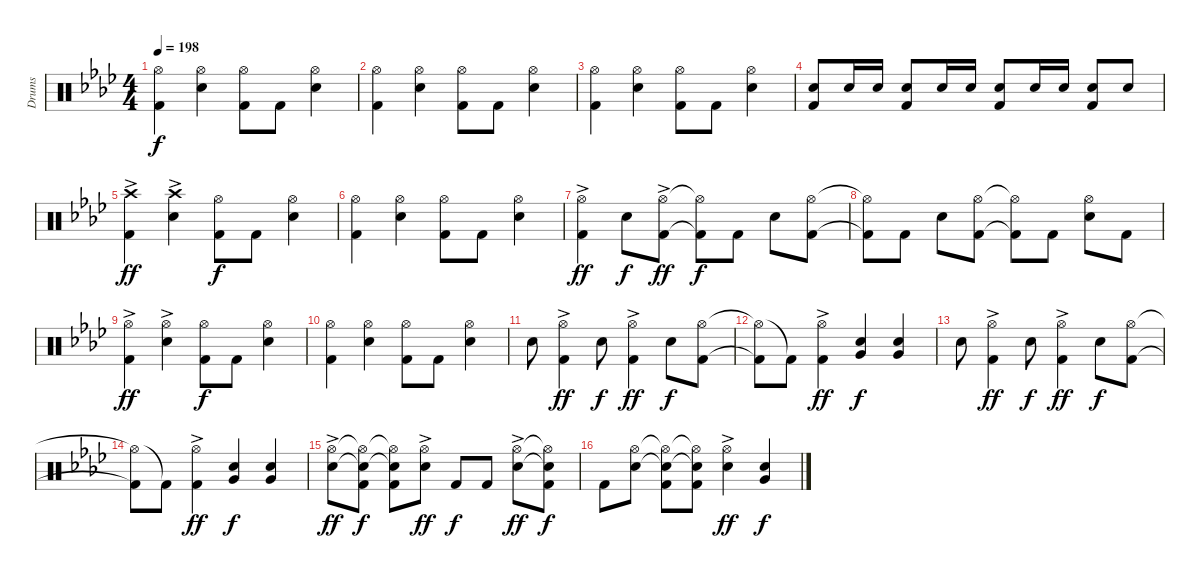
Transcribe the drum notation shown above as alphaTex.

\track ("Drums" "Drums") {instrument percussion}
\staff {score}
\articulation defaults
\ts (4 4)
\tempo 198
\clef neutral
\ks ab
("Hi-Hat (open)" "Kick (hit) 2").4{dy f} ("Hi-Hat (open)" "Snare (hit) 2").4 ("Hi-Hat (open)" "Kick (hit) 2").8 "Kick (hit) 2".8 ("Hi-Hat (open)" "Snare (hit) 2").4 |
("Hi-Hat (open)" "Kick (hit) 2").4 ("Hi-Hat (open)" "Snare (hit) 2").4 ("Hi-Hat (open)" "Kick (hit) 2").8 "Kick (hit) 2".8 ("Hi-Hat (open)" "Snare (hit) 2").4 |
("Hi-Hat (open)" "Kick (hit) 2").4 ("Hi-Hat (open)" "Snare (hit) 2").4 ("Hi-Hat (open)" "Kick (hit) 2").8 "Kick (hit) 2".8 ("Hi-Hat (open)" "Snare (hit) 2").4 |
("Snare (hit) 2" "Kick (hit) 2").8 "Snare (hit) 2".16 "Snare (hit) 2".16 ("Snare (hit) 2" "Kick (hit) 2").8 "Snare (hit) 2".16 "Snare (hit) 2".16 ("Snare (hit) 2" "Kick (hit) 2").8 "Snare (hit) 2".16 "Snare (hit) 2".16 ("Snare (hit) 2" "Kick (hit) 2").8 "Snare (hit) 2".8 |
("Crash high (hit)"{ac} "Kick (hit) 2"{ac}).4{dy ff} ("Crash high (hit)"{ac} "Snare (hit) 2"{ac}).4 ("Hi-Hat (open)" "Kick (hit) 2").8{dy f} "Kick (hit) 2".8 ("Hi-Hat (open)" "Snare (hit) 2").4 |
("Hi-Hat (open)" "Kick (hit) 2").4 ("Hi-Hat (open)" "Snare (hit) 2").4 ("Hi-Hat (open)" "Kick (hit) 2").8 "Kick (hit) 2".8 ("Hi-Hat (open)" "Snare (hit) 2").4 |
("Hi-Hat (open)" "Kick (hit) 2"{ac}).4{dy ff} "Snare (hit) 2".8{dy f} ("Hi-Hat (open)" "Kick (hit) 2"{ac}).8{dy ff} ("Hi-Hat (open)"{t} "Kick (hit) 2"{t}).8{dy f} "Kick (hit) 2".8 "Snare (hit) 2".8 ("Hi-Hat (open)" "Kick (hit) 2").8 |
("Hi-Hat (open)"{t} "Kick (hit) 2"{t}).8 "Kick (hit) 2".8 "Snare (hit) 2".8 ("Hi-Hat (open)" "Kick (hit) 2").8 ("Hi-Hat (open)"{t} "Kick (hit) 2"{t}).8 "Kick (hit) 2".8 ("Hi-Hat (open)" "Snare (hit) 2").8 "Kick (hit) 2".8 |
("Hi-Hat (open)"{ac} "Kick (hit) 2"{ac}).4{dy ff} ("Hi-Hat (open)" "Snare (hit) 2"{ac}).4 ("Hi-Hat (open)" "Kick (hit) 2").8{dy f} "Kick (hit) 2".8 ("Hi-Hat (open)" "Snare (hit) 2").4 |
("Hi-Hat (open)" "Kick (hit) 2").4 ("Hi-Hat (open)" "Snare (hit) 2").4 ("Hi-Hat (open)" "Kick (hit) 2").8 "Kick (hit) 2".8 ("Hi-Hat (open)" "Snare (hit) 2").4 |
"Snare (hit) 2".8 ("Hi-Hat (open)" "Kick (hit) 2"{ac}).4{dy ff} "Snare (hit) 2".8{dy f} ("Hi-Hat (open)" "Kick (hit) 2"{ac}).4{dy ff} "Snare (hit) 2".8{dy f} ("Hi-Hat (open)" "Kick (hit) 2").8 |
("Hi-Hat (open)"{t} "Kick (hit) 2"{t}).8 "Kick (hit) 2"{t}.8 ("Hi-Hat (open)"{ac} "Kick (hit) 2").4{dy ff} ("Snare (hit) 2" "Very Low Tom (hit)").4{dy f} ("Snare (hit) 2" "Very Low Tom (hit)").4 |
"Snare (hit) 2".8 ("Hi-Hat (open)" "Kick (hit) 2"{ac}).4{dy ff} "Snare (hit) 2".8{dy f} ("Hi-Hat (open)" "Kick (hit) 2"{ac}).4{dy ff} "Snare (hit) 2".8{dy f} ("Hi-Hat (open)" "Kick (hit) 2").8 |
("Hi-Hat (open)"{t} "Kick (hit) 2"{t}).8 "Kick (hit) 2"{t}.8 ("Hi-Hat (open)"{ac} "Kick (hit) 2").4{dy ff} ("Snare (hit) 2" "Very Low Tom (hit)").4{dy f} ("Snare (hit) 2" "Very Low Tom (hit)").4 |
("Hi-Hat (open)"{ac} "Snare (hit) 2").8{dy ff} ("Hi-Hat (open)"{t} "Snare (hit) 2"{t} "Kick (hit) 2").8{dy f} ("Hi-Hat (open)"{t} "Snare (hit) 2"{t} "Kick (hit) 2").8 ("Hi-Hat (open)"{ac} "Snare (hit) 2").8{dy ff} "Kick (hit) 2".8{dy f} "Kick (hit) 2".8 ("Hi-Hat (open)"{ac} "Snare (hit) 2").8{dy ff} ("Hi-Hat (open)"{t} "Snare (hit) 2"{t} "Kick (hit) 2").8{dy f} |
"Kick (hit) 2".8 ("Hi-Hat (open)" "Snare (hit) 2").8 ("Hi-Hat (open)"{t} "Snare (hit) 2"{t} "Kick (hit) 2").8 ("Hi-Hat (open)"{t} "Snare (hit) 2"{t} "Kick (hit) 2").8 ("Hi-Hat (open)"{ac} "Snare (hit) 2").4{dy ff} ("Snare (hit) 2" "Very Low Tom (hit)").4{dy f}
